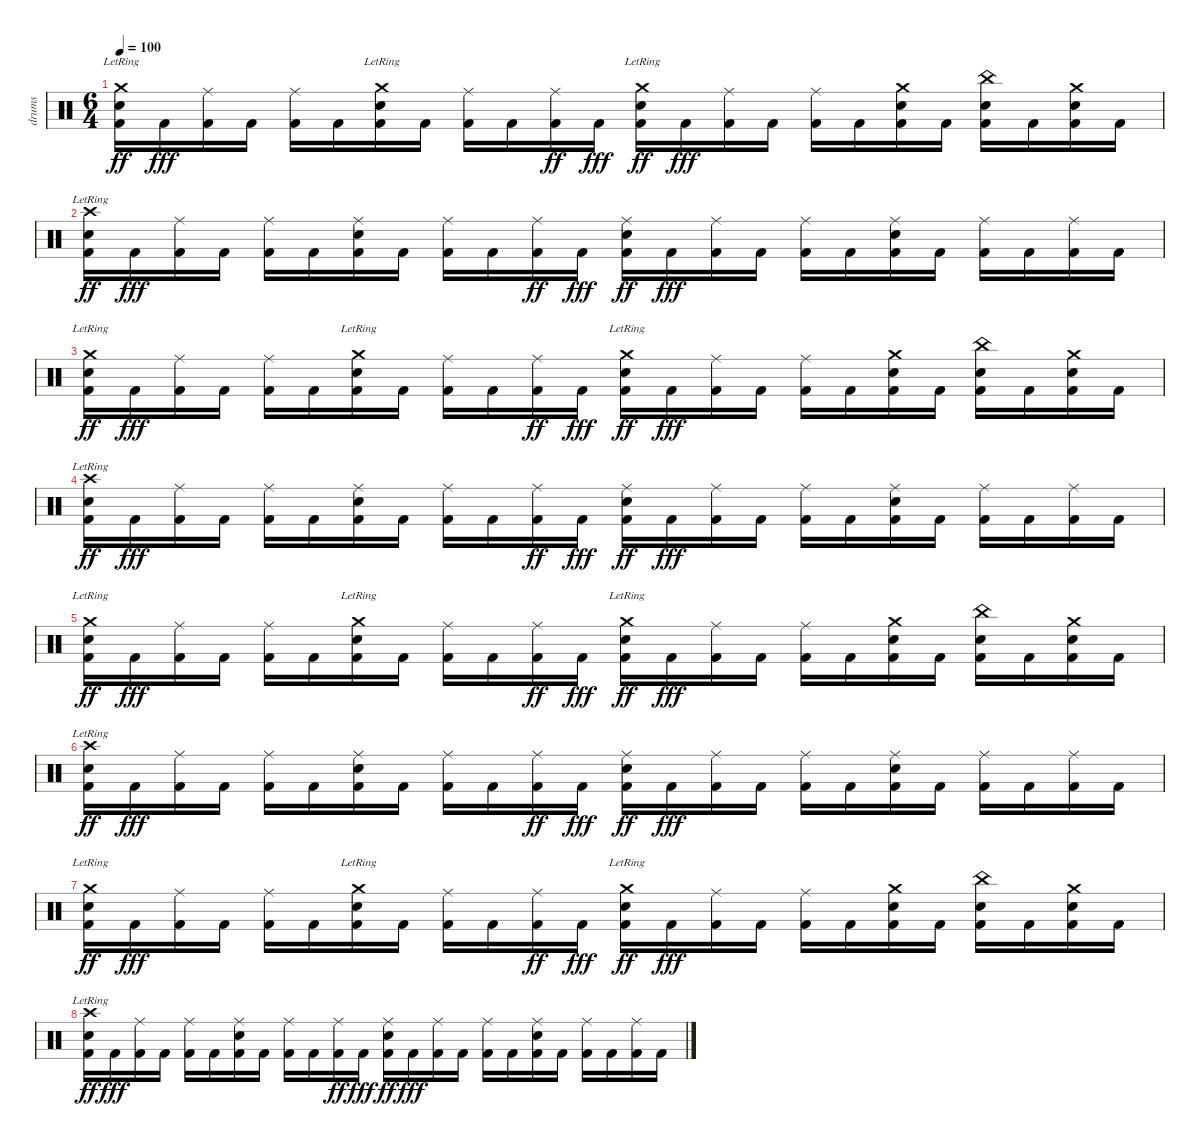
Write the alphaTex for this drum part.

\track ("drums" "drums") {instrument percussion}
\staff {score}
\articulation defaults
\ts (6 4)
\tempo 100
\clef neutral
\ks c
("Crash medium (hit)"{lr} "Electric Snare (hit)" "Kick (hit) 2").16{dy ff} "Kick (hit) 2".16{dy fff} ("Ride (middle)" "Kick (hit) 2").16 "Kick (hit) 2".16 ("Ride (middle)" "Kick (hit) 2").16 "Kick (hit) 2".16 ("Crash medium (hit)"{lr} "Electric Snare (hit)" "Kick (hit) 2").16 "Kick (hit) 2".16 ("Ride (middle)" "Kick (hit) 2").16 "Kick (hit) 2".16 ("Ride (middle)" "Kick (hit) 2").16{dy ff} "Kick (hit) 2".16{dy fff} ("Crash medium (hit)"{lr} "Electric Snare (hit)" "Kick (hit) 2").16{dy ff} "Kick (hit) 2".16{dy fff} ("Ride (middle)" "Kick (hit) 2").16 "Kick (hit) 2".16 ("Ride (middle)" "Kick (hit) 2").16 "Kick (hit) 2".16 ("Crash medium (hit)" "Electric Snare (hit)" "Kick (hit) 2").16 "Kick (hit) 2".16 ("China (hit)" "Electric Snare (hit)" "Kick (hit) 2").16 "Kick (hit) 2".16 ("Crash medium (hit)" "Electric Snare (hit)" "Kick (hit) 2").16 "Kick (hit) 2".16 |
("Crash high (hit)"{lr} "Electric Snare (hit)" "Kick (hit) 2").16{dy ff} "Kick (hit) 2".16{dy fff} ("Ride (middle)" "Kick (hit) 2").16 "Kick (hit) 2".16 ("Ride (middle)" "Kick (hit) 2").16 "Kick (hit) 2".16 ("Ride (middle)" "Electric Snare (hit)" "Kick (hit) 2").16 "Kick (hit) 2".16 ("Ride (middle)" "Kick (hit) 2").16 "Kick (hit) 2".16 ("Ride (middle)" "Kick (hit) 2").16{dy ff} "Kick (hit) 2".16{dy fff} ("Ride (middle)" "Electric Snare (hit)" "Kick (hit) 2").16{dy ff} "Kick (hit) 2".16{dy fff} ("Ride (middle)" "Kick (hit) 2").16 "Kick (hit) 2".16 ("Ride (middle)" "Kick (hit) 2").16 "Kick (hit) 2".16 ("Ride (middle)" "Electric Snare (hit)" "Kick (hit) 2").16 "Kick (hit) 2".16 ("Ride (middle)" "Kick (hit) 2").16 "Kick (hit) 2".16 ("Ride (middle)" "Kick (hit) 2").16 "Kick (hit) 2".16 |
("Crash medium (hit)"{lr} "Electric Snare (hit)" "Kick (hit) 2").16{dy ff} "Kick (hit) 2".16{dy fff} ("Ride (middle)" "Kick (hit) 2").16 "Kick (hit) 2".16 ("Ride (middle)" "Kick (hit) 2").16 "Kick (hit) 2".16 ("Crash medium (hit)"{lr} "Electric Snare (hit)" "Kick (hit) 2").16 "Kick (hit) 2".16 ("Ride (middle)" "Kick (hit) 2").16 "Kick (hit) 2".16 ("Ride (middle)" "Kick (hit) 2").16{dy ff} "Kick (hit) 2".16{dy fff} ("Crash medium (hit)"{lr} "Electric Snare (hit)" "Kick (hit) 2").16{dy ff} "Kick (hit) 2".16{dy fff} ("Ride (middle)" "Kick (hit) 2").16 "Kick (hit) 2".16 ("Ride (middle)" "Kick (hit) 2").16 "Kick (hit) 2".16 ("Crash medium (hit)" "Electric Snare (hit)" "Kick (hit) 2").16 "Kick (hit) 2".16 ("China (hit)" "Electric Snare (hit)" "Kick (hit) 2").16 "Kick (hit) 2".16 ("Crash medium (hit)" "Electric Snare (hit)" "Kick (hit) 2").16 "Kick (hit) 2".16 |
("Crash high (hit)"{lr} "Electric Snare (hit)" "Kick (hit) 2").16{dy ff} "Kick (hit) 2".16{dy fff} ("Ride (middle)" "Kick (hit) 2").16 "Kick (hit) 2".16 ("Ride (middle)" "Kick (hit) 2").16 "Kick (hit) 2".16 ("Ride (middle)" "Electric Snare (hit)" "Kick (hit) 2").16 "Kick (hit) 2".16 ("Ride (middle)" "Kick (hit) 2").16 "Kick (hit) 2".16 ("Ride (middle)" "Kick (hit) 2").16{dy ff} "Kick (hit) 2".16{dy fff} ("Ride (middle)" "Electric Snare (hit)" "Kick (hit) 2").16{dy ff} "Kick (hit) 2".16{dy fff} ("Ride (middle)" "Kick (hit) 2").16 "Kick (hit) 2".16 ("Ride (middle)" "Kick (hit) 2").16 "Kick (hit) 2".16 ("Ride (middle)" "Electric Snare (hit)" "Kick (hit) 2").16 "Kick (hit) 2".16 ("Ride (middle)" "Kick (hit) 2").16 "Kick (hit) 2".16 ("Ride (middle)" "Kick (hit) 2").16 "Kick (hit) 2".16 |
("Crash medium (hit)"{lr} "Electric Snare (hit)" "Kick (hit) 2").16{dy ff} "Kick (hit) 2".16{dy fff} ("Ride (middle)" "Kick (hit) 2").16 "Kick (hit) 2".16 ("Ride (middle)" "Kick (hit) 2").16 "Kick (hit) 2".16 ("Crash medium (hit)"{lr} "Electric Snare (hit)" "Kick (hit) 2").16 "Kick (hit) 2".16 ("Ride (middle)" "Kick (hit) 2").16 "Kick (hit) 2".16 ("Ride (middle)" "Kick (hit) 2").16{dy ff} "Kick (hit) 2".16{dy fff} ("Crash medium (hit)"{lr} "Electric Snare (hit)" "Kick (hit) 2").16{dy ff} "Kick (hit) 2".16{dy fff} ("Ride (middle)" "Kick (hit) 2").16 "Kick (hit) 2".16 ("Ride (middle)" "Kick (hit) 2").16 "Kick (hit) 2".16 ("Crash medium (hit)" "Electric Snare (hit)" "Kick (hit) 2").16 "Kick (hit) 2".16 ("China (hit)" "Electric Snare (hit)" "Kick (hit) 2").16 "Kick (hit) 2".16 ("Crash medium (hit)" "Electric Snare (hit)" "Kick (hit) 2").16 "Kick (hit) 2".16 |
("Crash high (hit)"{lr} "Electric Snare (hit)" "Kick (hit) 2").16{dy ff} "Kick (hit) 2".16{dy fff} ("Ride (middle)" "Kick (hit) 2").16 "Kick (hit) 2".16 ("Ride (middle)" "Kick (hit) 2").16 "Kick (hit) 2".16 ("Ride (middle)" "Electric Snare (hit)" "Kick (hit) 2").16 "Kick (hit) 2".16 ("Ride (middle)" "Kick (hit) 2").16 "Kick (hit) 2".16 ("Ride (middle)" "Kick (hit) 2").16{dy ff} "Kick (hit) 2".16{dy fff} ("Ride (middle)" "Electric Snare (hit)" "Kick (hit) 2").16{dy ff} "Kick (hit) 2".16{dy fff} ("Ride (middle)" "Kick (hit) 2").16 "Kick (hit) 2".16 ("Ride (middle)" "Kick (hit) 2").16 "Kick (hit) 2".16 ("Ride (middle)" "Electric Snare (hit)" "Kick (hit) 2").16 "Kick (hit) 2".16 ("Ride (middle)" "Kick (hit) 2").16 "Kick (hit) 2".16 ("Ride (middle)" "Kick (hit) 2").16 "Kick (hit) 2".16 |
("Crash medium (hit)"{lr} "Electric Snare (hit)" "Kick (hit) 2").16{dy ff} "Kick (hit) 2".16{dy fff} ("Ride (middle)" "Kick (hit) 2").16 "Kick (hit) 2".16 ("Ride (middle)" "Kick (hit) 2").16 "Kick (hit) 2".16 ("Crash medium (hit)"{lr} "Electric Snare (hit)" "Kick (hit) 2").16 "Kick (hit) 2".16 ("Ride (middle)" "Kick (hit) 2").16 "Kick (hit) 2".16 ("Ride (middle)" "Kick (hit) 2").16{dy ff} "Kick (hit) 2".16{dy fff} ("Crash medium (hit)"{lr} "Electric Snare (hit)" "Kick (hit) 2").16{dy ff} "Kick (hit) 2".16{dy fff} ("Ride (middle)" "Kick (hit) 2").16 "Kick (hit) 2".16 ("Ride (middle)" "Kick (hit) 2").16 "Kick (hit) 2".16 ("Crash medium (hit)" "Electric Snare (hit)" "Kick (hit) 2").16 "Kick (hit) 2".16 ("China (hit)" "Electric Snare (hit)" "Kick (hit) 2").16 "Kick (hit) 2".16 ("Crash medium (hit)" "Electric Snare (hit)" "Kick (hit) 2").16 "Kick (hit) 2".16 |
("Crash high (hit)"{lr} "Electric Snare (hit)" "Kick (hit) 2").16{dy ff} "Kick (hit) 2".16{dy fff} ("Ride (middle)" "Kick (hit) 2").16 "Kick (hit) 2".16 ("Ride (middle)" "Kick (hit) 2").16 "Kick (hit) 2".16 ("Ride (middle)" "Electric Snare (hit)" "Kick (hit) 2").16 "Kick (hit) 2".16 ("Ride (middle)" "Kick (hit) 2").16 "Kick (hit) 2".16 ("Ride (middle)" "Kick (hit) 2").16{dy ff} "Kick (hit) 2".16{dy fff} ("Ride (middle)" "Electric Snare (hit)" "Kick (hit) 2").16{dy ff} "Kick (hit) 2".16{dy fff} ("Ride (middle)" "Kick (hit) 2").16 "Kick (hit) 2".16 ("Ride (middle)" "Kick (hit) 2").16 "Kick (hit) 2".16 ("Ride (middle)" "Electric Snare (hit)" "Kick (hit) 2").16 "Kick (hit) 2".16 ("Ride (middle)" "Kick (hit) 2").16 "Kick (hit) 2".16 ("Ride (middle)" "Kick (hit) 2").16 "Kick (hit) 2".16
